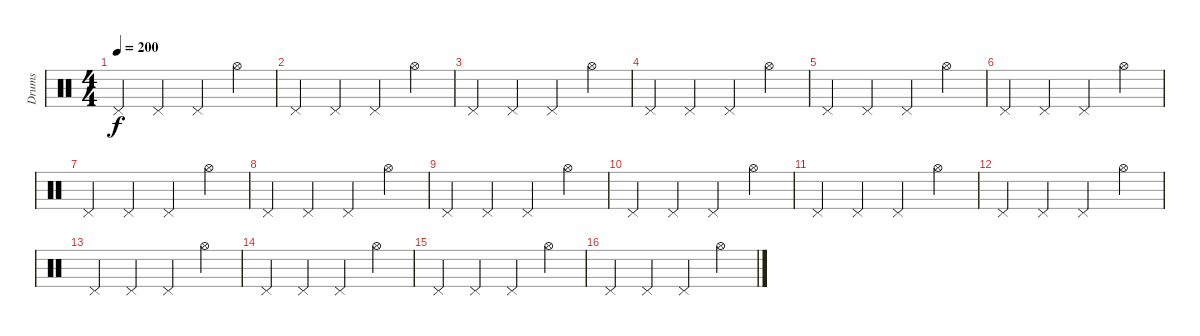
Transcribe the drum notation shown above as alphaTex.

\track ("Drums" "Drums") {instrument percussion}
\staff {score}
\articulation defaults
\ts (4 4)
\tempo 200
\clef neutral
\ks c "Pedal Hi-Hat (hit)".4{dy f} "Pedal Hi-Hat (hit)".4 "Pedal Hi-Hat (hit)".4 "Hi-Hat (open)".4
|
"Pedal Hi-Hat (hit)".4 "Pedal Hi-Hat (hit)".4 "Pedal Hi-Hat (hit)".4 "Hi-Hat (open)".4 |
"Pedal Hi-Hat (hit)".4 "Pedal Hi-Hat (hit)".4 "Pedal Hi-Hat (hit)".4 "Hi-Hat (open)".4 |
"Pedal Hi-Hat (hit)".4 "Pedal Hi-Hat (hit)".4 "Pedal Hi-Hat (hit)".4 "Hi-Hat (open)".4 |
"Pedal Hi-Hat (hit)".4 "Pedal Hi-Hat (hit)".4 "Pedal Hi-Hat (hit)".4 "Hi-Hat (open)".4 |
"Pedal Hi-Hat (hit)".4 "Pedal Hi-Hat (hit)".4 "Pedal Hi-Hat (hit)".4 "Hi-Hat (open)".4 |
"Pedal Hi-Hat (hit)".4 "Pedal Hi-Hat (hit)".4 "Pedal Hi-Hat (hit)".4 "Hi-Hat (open)".4 |
"Pedal Hi-Hat (hit)".4 "Pedal Hi-Hat (hit)".4 "Pedal Hi-Hat (hit)".4 "Hi-Hat (open)".4 |
"Pedal Hi-Hat (hit)".4 "Pedal Hi-Hat (hit)".4 "Pedal Hi-Hat (hit)".4 "Hi-Hat (open)".4 |
"Pedal Hi-Hat (hit)".4 "Pedal Hi-Hat (hit)".4 "Pedal Hi-Hat (hit)".4 "Hi-Hat (open)".4 |
"Pedal Hi-Hat (hit)".4 "Pedal Hi-Hat (hit)".4 "Pedal Hi-Hat (hit)".4 "Hi-Hat (open)".4 |
"Pedal Hi-Hat (hit)".4 "Pedal Hi-Hat (hit)".4 "Pedal Hi-Hat (hit)".4 "Hi-Hat (open)".4 |
"Pedal Hi-Hat (hit)".4 "Pedal Hi-Hat (hit)".4 "Pedal Hi-Hat (hit)".4 "Hi-Hat (open)".4 |
"Pedal Hi-Hat (hit)".4 "Pedal Hi-Hat (hit)".4 "Pedal Hi-Hat (hit)".4 "Hi-Hat (open)".4 |
"Pedal Hi-Hat (hit)".4 "Pedal Hi-Hat (hit)".4 "Pedal Hi-Hat (hit)".4 "Hi-Hat (open)".4 |
"Pedal Hi-Hat (hit)".4 "Pedal Hi-Hat (hit)".4 "Pedal Hi-Hat (hit)".4 "Hi-Hat (open)".4
